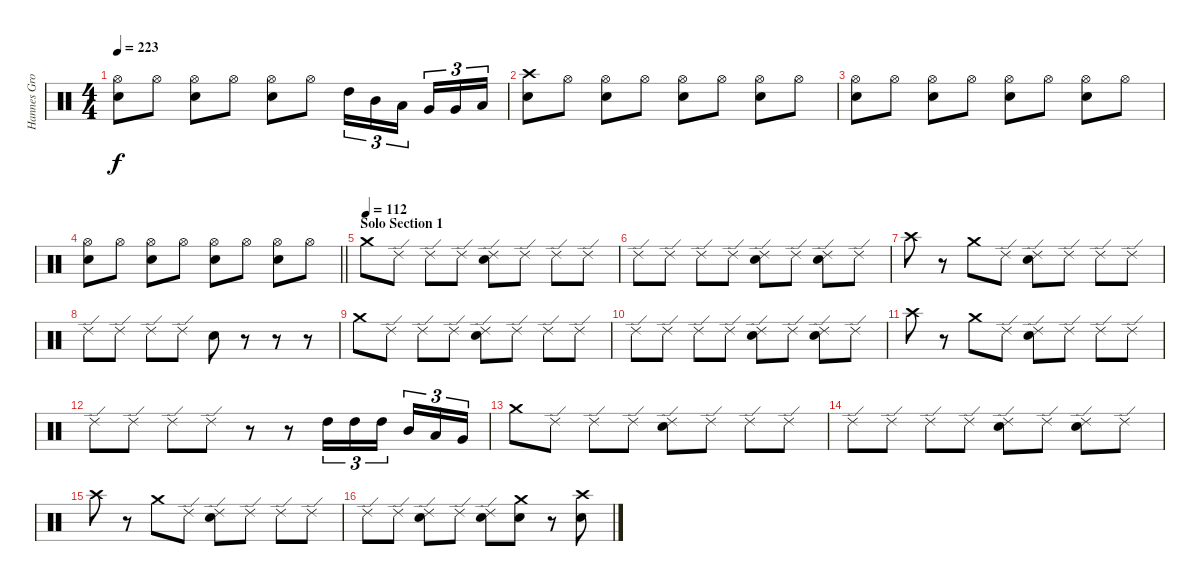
\track ("Hannes Grossmann" "Hannes Gro") {instrument percussion}
\staff {score}
\articulation defaults
\ts (4 4)
\tempo 223
\clef neutral
\ks c
("Hi-Hat (open)" "Electric Snare (hit)").8{dy f} "Hi-Hat (open)".8 ("Hi-Hat (open)" "Electric Snare (hit)").8 "Hi-Hat (open)".8 ("Hi-Hat (open)" "Electric Snare (hit)").8 "Hi-Hat (open)".8 "High Tom (hit)".16{tu (3 2)} "Mid Tom (hit)".16{tu (3 2)} "Low Tom (hit)".16{tu (3 2) beam splitsecondary} "Very Low Tom (hit)".16{tu (3 2)} "Very Low Tom (hit)".16{tu (3 2)} "Low Floor Tom (hit)".16{tu (3 2)} |
("Crash high (hit)" "Electric Snare (hit)").8 "Hi-Hat (open)".8 ("Hi-Hat (open)" "Electric Snare (hit)").8 "Hi-Hat (open)".8 ("Hi-Hat (open)" "Electric Snare (hit)").8 "Hi-Hat (open)".8 ("Hi-Hat (open)" "Electric Snare (hit)").8 "Hi-Hat (open)".8 |
("Hi-Hat (open)" "Electric Snare (hit)").8 "Hi-Hat (open)".8 ("Hi-Hat (open)" "Electric Snare (hit)").8 "Hi-Hat (open)".8 ("Hi-Hat (open)" "Electric Snare (hit)").8 "Hi-Hat (open)".8 ("Hi-Hat (open)" "Electric Snare (hit)").8 "Hi-Hat (open)".8 |
\barLineRight lightlight
("Hi-Hat (open)" "Electric Snare (hit)").8 "Hi-Hat (open)".8 ("Hi-Hat (open)" "Electric Snare (hit)").8 "Hi-Hat (open)".8 ("Hi-Hat (open)" "Electric Snare (hit)").8 "Hi-Hat (open)".8 ("Hi-Hat (open)" "Electric Snare (hit)").8 "Hi-Hat (open)".8 |
\section ("" "Solo Section 1")
\tempo (112)
"Crash medium (hit)".8 "Ride (edge) 2".8 "Ride (edge) 2".8 "Ride (edge) 2".8 ("Ride (edge) 2" "Electric Snare (hit)").8 "Ride (edge) 2".8 "Ride (edge) 2".8 "Ride (edge) 2".8 |
"Ride (edge) 2".8 "Ride (edge) 2".8 "Ride (edge) 2".8 "Ride (edge) 2".8 ("Ride (edge) 2" "Electric Snare (hit)").8 "Ride (edge) 2".8 ("Ride (edge) 2" "Electric Snare (hit)").8 "Ride (edge) 2".8 |
"Crash high (hit)".8 r.8 "Crash medium (hit)".8 "Ride (edge) 2".8 ("Ride (edge) 2" "Electric Snare (hit)").8 "Ride (edge) 2".8 "Ride (edge) 2".8 "Ride (edge) 2".8 |
"Ride (edge) 2".8 "Ride (edge) 2".8 "Ride (edge) 2".8 "Ride (edge) 2".8 "Electric Snare (hit)".8 r.8 r.8 r.8 |
"Crash medium (hit)".8 "Ride (edge) 2".8 "Ride (edge) 2".8 "Ride (edge) 2".8 ("Ride (edge) 2" "Electric Snare (hit)").8 "Ride (edge) 2".8 "Ride (edge) 2".8 "Ride (edge) 2".8 |
"Ride (edge) 2".8 "Ride (edge) 2".8 "Ride (edge) 2".8 "Ride (edge) 2".8 ("Ride (edge) 2" "Electric Snare (hit)").8 "Ride (edge) 2".8 ("Ride (edge) 2" "Electric Snare (hit)").8 "Ride (edge) 2".8 |
"Crash high (hit)".8 r.8 "Crash medium (hit)".8 "Ride (edge) 2".8 ("Ride (edge) 2" "Electric Snare (hit)").8 "Ride (edge) 2".8 "Ride (edge) 2".8 "Ride (edge) 2".8 |
"Ride (edge) 2".8 "Ride (edge) 2".8 "Ride (edge) 2".8 "Ride (edge) 2".8 r.8 r.8 "High Tom (hit)".16{tu (3 2)} "High Tom (hit)".16{tu (3 2)} "High Tom (hit)".16{tu (3 2) beam splitsecondary} "Mid Tom (hit)".16{tu (3 2)} "Low Tom (hit)".16{tu (3 2)} "Very Low Tom (hit)".16{tu (3 2)} |
"Crash medium (hit)".8 "Ride (edge) 2".8 "Ride (edge) 2".8 "Ride (edge) 2".8 ("Ride (edge) 2" "Electric Snare (hit)").8 "Ride (edge) 2".8 "Ride (edge) 2".8 "Ride (edge) 2".8 |
"Ride (edge) 2".8 "Ride (edge) 2".8 "Ride (edge) 2".8 "Ride (edge) 2".8 ("Ride (edge) 2" "Electric Snare (hit)").8 "Ride (edge) 2".8 ("Ride (edge) 2" "Electric Snare (hit)").8 "Ride (edge) 2".8 |
"Crash high (hit)".8 r.8 "Crash medium (hit)".8 "Ride (edge) 2".8 ("Ride (edge) 2" "Electric Snare (hit)").8 "Ride (edge) 2".8 "Ride (edge) 2".8 "Ride (edge) 2".8 |
"Ride (edge) 2".8 "Ride (edge) 2".8 ("Ride (edge) 2" "Electric Snare (hit)").8 "Ride (edge) 2".8 ("Ride (edge) 2" "Electric Snare (hit)").8 ("Crash medium (hit)" "Electric Snare (hit)").8 r.8 ("Crash high (hit)" "Electric Snare (hit)").8
